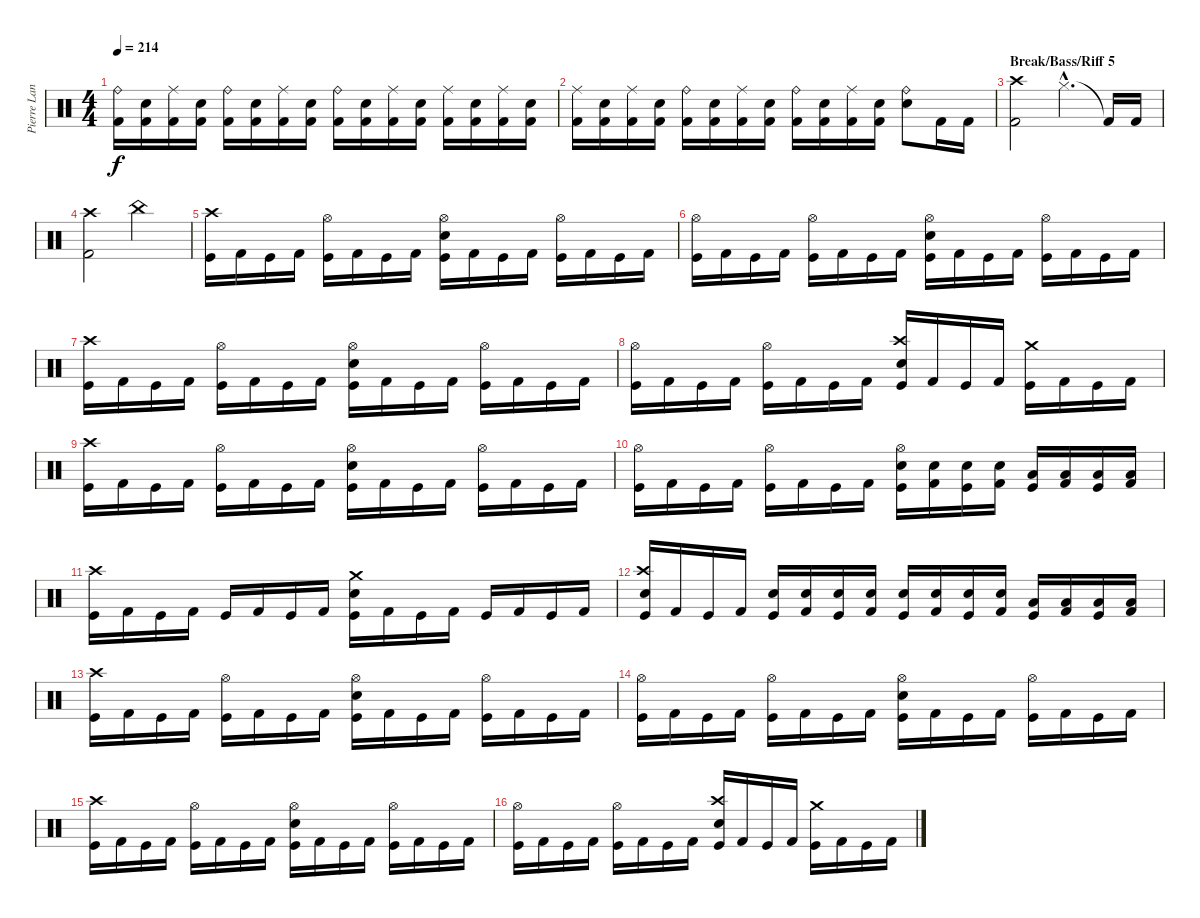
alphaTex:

\track ("Pierre Langlois (Drums)" "Pierre Lan") {instrument percussion}
\staff {score}
\articulation defaults
\ts (4 4)
\tempo 214
\clef neutral
\ks c
("Ride (bell)" "Kick (hit) 2").16{dy f} ("Snare (hit) 2" "Kick (hit) 2").16 ("Ride (middle)" "Kick (hit) 2").16 ("Snare (hit) 2" "Kick (hit) 2").16 ("Ride (bell)" "Kick (hit) 2").16 ("Snare (hit) 2" "Kick (hit) 2").16 ("Ride (middle)" "Kick (hit) 2").16 ("Snare (hit) 2" "Kick (hit) 2").16 ("Ride (bell)" "Kick (hit) 2").16 ("Snare (hit) 2" "Kick (hit) 2").16 ("Ride (middle)" "Kick (hit) 2").16 ("Snare (hit) 2" "Kick (hit) 2").16 ("Ride (middle)" "Kick (hit) 2").16 ("Snare (hit) 2" "Kick (hit) 2").16 ("Ride (middle)" "Kick (hit) 2").16 ("Snare (hit) 2" "Kick (hit) 2").16 |
("Ride (middle)" "Kick (hit) 2").16 ("Snare (hit) 2" "Kick (hit) 2").16 ("Ride (middle)" "Kick (hit) 2").16 ("Snare (hit) 2" "Kick (hit) 2").16 ("Ride (bell)" "Kick (hit) 2").16 ("Snare (hit) 2" "Kick (hit) 2").16 ("Ride (middle)" "Kick (hit) 2").16 ("Snare (hit) 2" "Kick (hit) 2").16 ("Ride (bell)" "Kick (hit) 2").16 ("Snare (hit) 2" "Kick (hit) 2").16 ("Ride (middle)" "Kick (hit) 2").16 ("Snare (hit) 2" "Kick (hit) 2").16 ("Ride (bell)" "Snare (hit) 2").8 "Kick (hit) 2".16 "Kick (hit) 2".16 |
\section ("" "Break/Bass/Riff 5")
("Crash high (hit)" "Kick (hit) 2").2 "Hi-Hat (closed)"{hac}.4{d} "Kick (hit) 2"{t}.16 "Kick (hit) 2".16 |
("Crash high (hit)" "Kick (hit) 2").2 "China (hit)".2 |
("Crash high (hit)" "Kick (hit)").16 "Kick (hit) 2".16 "Kick (hit)".16 "Kick (hit) 2".16 ("Hi-Hat (open)" "Kick (hit)").16 "Kick (hit) 2".16 "Kick (hit)".16 "Kick (hit) 2".16 ("Hi-Hat (open)" "Snare (hit) 2" "Kick (hit)").16 "Kick (hit) 2".16 "Kick (hit)".16 "Kick (hit) 2".16 ("Hi-Hat (open)" "Kick (hit)").16 "Kick (hit) 2".16 "Kick (hit)".16 "Kick (hit) 2".16 |
("Hi-Hat (open)" "Kick (hit)").16 "Kick (hit) 2".16 "Kick (hit)".16 "Kick (hit) 2".16 ("Hi-Hat (open)" "Kick (hit)").16 "Kick (hit) 2".16 "Kick (hit)".16 "Kick (hit) 2".16 ("Hi-Hat (open)" "Snare (hit) 2" "Kick (hit)").16 "Kick (hit) 2".16 "Kick (hit)".16 "Kick (hit) 2".16 ("Hi-Hat (open)" "Kick (hit)").16 "Kick (hit) 2".16 "Kick (hit)".16 "Kick (hit) 2".16 |
("Crash high (hit)" "Kick (hit)").16 "Kick (hit) 2".16 "Kick (hit)".16 "Kick (hit) 2".16 ("Hi-Hat (open)" "Kick (hit)").16 "Kick (hit) 2".16 "Kick (hit)".16 "Kick (hit) 2".16 ("Hi-Hat (open)" "Snare (hit) 2" "Kick (hit)").16 "Kick (hit) 2".16 "Kick (hit)".16 "Kick (hit) 2".16 ("Hi-Hat (open)" "Kick (hit)").16 "Kick (hit) 2".16 "Kick (hit)".16 "Kick (hit) 2".16 |
("Hi-Hat (open)" "Kick (hit)").16 "Kick (hit) 2".16 "Kick (hit)".16 "Kick (hit) 2".16 ("Hi-Hat (open)" "Kick (hit)").16 "Kick (hit) 2".16 "Kick (hit)".16 "Kick (hit) 2".16 ("Crash high (hit)" "Snare (hit) 2" "Kick (hit)").16 "Kick (hit) 2".16 "Kick (hit)".16 "Kick (hit) 2".16 ("Crash medium (hit)" "Kick (hit)").16 "Kick (hit) 2".16 "Kick (hit)".16 "Kick (hit) 2".16 |
("Crash high (hit)" "Kick (hit)").16 "Kick (hit) 2".16 "Kick (hit)".16 "Kick (hit) 2".16 ("Hi-Hat (open)" "Kick (hit)").16 "Kick (hit) 2".16 "Kick (hit)".16 "Kick (hit) 2".16 ("Hi-Hat (open)" "Snare (hit) 2" "Kick (hit)").16 "Kick (hit) 2".16 "Kick (hit)".16 "Kick (hit) 2".16 ("Hi-Hat (open)" "Kick (hit)").16 "Kick (hit) 2".16 "Kick (hit)".16 "Kick (hit) 2".16 |
("Hi-Hat (open)" "Kick (hit)").16 "Kick (hit) 2".16 "Kick (hit)".16 "Kick (hit) 2".16 ("Hi-Hat (open)" "Kick (hit)").16 "Kick (hit) 2".16 "Kick (hit)".16 "Kick (hit) 2".16 ("Hi-Hat (open)" "Snare (hit) 2" "Kick (hit)").16 ("Snare (hit) 2" "Kick (hit) 2").16 ("Snare (hit) 2" "Kick (hit)").16 ("Snare (hit) 2" "Kick (hit) 2").16 ("Low Tom (hit)" "Kick (hit)").16 ("Low Tom (hit)" "Kick (hit) 2").16 ("Low Floor Tom (hit)" "Kick (hit)").16 ("Low Floor Tom (hit)" "Kick (hit) 2").16 |
("Crash high (hit)" "Kick (hit)").16 "Kick (hit) 2".16 "Kick (hit)".16 "Kick (hit) 2".16 "Kick (hit)".16 "Kick (hit) 2".16 "Kick (hit)".16 "Kick (hit) 2".16 ("Crash medium (hit)" "Snare (hit) 2" "Kick (hit)").16 "Kick (hit) 2".16 "Kick (hit)".16 "Kick (hit) 2".16 "Kick (hit)".16 "Kick (hit) 2".16 "Kick (hit)".16 "Kick (hit) 2".16 |
("Snare (hit) 2" "Crash high (hit)" "Kick (hit)").16 "Kick (hit) 2".16 "Kick (hit)".16 "Kick (hit) 2".16 ("Snare (hit) 2" "Kick (hit)").16 ("Snare (hit) 2" "Kick (hit) 2").16 ("Snare (hit) 2" "Kick (hit)").16 ("Snare (hit) 2" "Kick (hit) 2").16 ("Snare (hit) 2" "Kick (hit)").16 ("Snare (hit) 2" "Kick (hit) 2").16 ("Snare (hit) 2" "Kick (hit)").16 ("Snare (hit) 2" "Kick (hit) 2").16 ("Low Tom (hit)" "Kick (hit)").16 ("Low Tom (hit)" "Kick (hit) 2").16 ("Low Floor Tom (hit)" "Kick (hit)").16 ("Low Floor Tom (hit)" "Kick (hit) 2").16 |
("Crash high (hit)" "Kick (hit)").16 "Kick (hit) 2".16 "Kick (hit)".16 "Kick (hit) 2".16 ("Hi-Hat (open)" "Kick (hit)").16 "Kick (hit) 2".16 "Kick (hit)".16 "Kick (hit) 2".16 ("Hi-Hat (open)" "Snare (hit) 2" "Kick (hit)").16 "Kick (hit) 2".16 "Kick (hit)".16 "Kick (hit) 2".16 ("Hi-Hat (open)" "Kick (hit)").16 "Kick (hit) 2".16 "Kick (hit)".16 "Kick (hit) 2".16 |
("Hi-Hat (open)" "Kick (hit)").16 "Kick (hit) 2".16 "Kick (hit)".16 "Kick (hit) 2".16 ("Hi-Hat (open)" "Kick (hit)").16 "Kick (hit) 2".16 "Kick (hit)".16 "Kick (hit) 2".16 ("Hi-Hat (open)" "Snare (hit) 2" "Kick (hit)").16 "Kick (hit) 2".16 "Kick (hit)".16 "Kick (hit) 2".16 ("Hi-Hat (open)" "Kick (hit)").16 "Kick (hit) 2".16 "Kick (hit)".16 "Kick (hit) 2".16 |
("Crash high (hit)" "Kick (hit)").16 "Kick (hit) 2".16 "Kick (hit)".16 "Kick (hit) 2".16 ("Hi-Hat (open)" "Kick (hit)").16 "Kick (hit) 2".16 "Kick (hit)".16 "Kick (hit) 2".16 ("Hi-Hat (open)" "Snare (hit) 2" "Kick (hit)").16 "Kick (hit) 2".16 "Kick (hit)".16 "Kick (hit) 2".16 ("Hi-Hat (open)" "Kick (hit)").16 "Kick (hit) 2".16 "Kick (hit)".16 "Kick (hit) 2".16 |
("Hi-Hat (open)" "Kick (hit)").16 "Kick (hit) 2".16 "Kick (hit)".16 "Kick (hit) 2".16 ("Hi-Hat (open)" "Kick (hit)").16 "Kick (hit) 2".16 "Kick (hit)".16 "Kick (hit) 2".16 ("Crash high (hit)" "Snare (hit) 2" "Kick (hit)").16 "Kick (hit) 2".16 "Kick (hit)".16 "Kick (hit) 2".16 ("Crash medium (hit)" "Kick (hit)").16 "Kick (hit) 2".16 "Kick (hit)".16 "Kick (hit) 2".16
